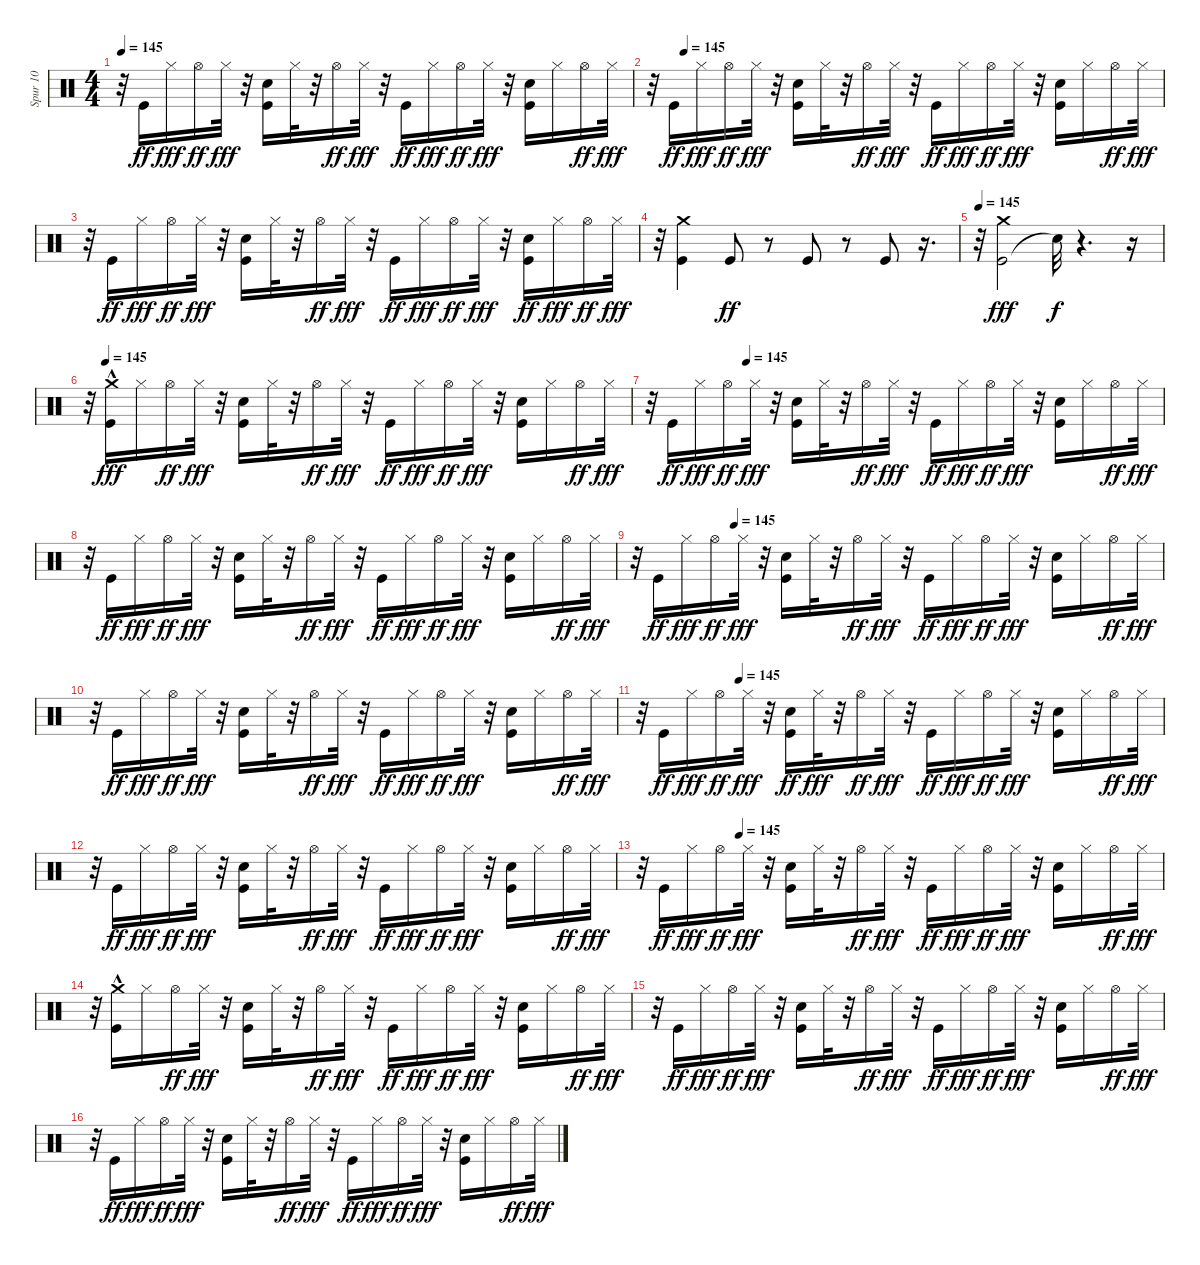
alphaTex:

\track ("Spur 10" "Spur 10") {instrument percussion}
\staff {score}
\articulation defaults
\ts (4 4)
\tempo 145
\clef neutral
\ks c
r.32{dy fff} "Kick (hit)".16{dy ff} "Hi-Hat (closed)".16{dy fff} "Hi-Hat (open)".16{dy ff} "Hi-Hat (closed)".32{dy fff} r.32 ("Kick (hit)" "Hand Clap (hit)").16 "Hi-Hat (closed)".32 r.32 "Hi-Hat (open)".16{dy ff} "Hi-Hat (closed)".32{dy fff} r.32 "Kick (hit)".16{dy ff} "Hi-Hat (closed)".16{dy fff} "Hi-Hat (open)".16{dy ff} "Hi-Hat (closed)".32{dy fff} r.32 ("Kick (hit)" "Hand Clap (hit)").16 "Hi-Hat (closed)".16 "Hi-Hat (open)".16{dy ff} "Hi-Hat (closed)".32{dy fff} |
\tempo (145 0.0625)
r.32 "Kick (hit)".16{dy ff} "Hi-Hat (closed)".16{dy fff} "Hi-Hat (open)".16{dy ff} "Hi-Hat (closed)".32{dy fff} r.32 ("Kick (hit)" "Hand Clap (hit)").16 "Hi-Hat (closed)".32 r.32 "Hi-Hat (open)".16{dy ff} "Hi-Hat (closed)".32{dy fff} r.32 "Kick (hit)".16{dy ff} "Hi-Hat (closed)".16{dy fff} "Hi-Hat (open)".16{dy ff} "Hi-Hat (closed)".32{dy fff} r.32 ("Kick (hit)" "Hand Clap (hit)").16 "Hi-Hat (closed)".16 "Hi-Hat (open)".16{dy ff} "Hi-Hat (closed)".32{dy fff} |
r.32 "Kick (hit)".16{dy ff} "Hi-Hat (closed)".16{dy fff} "Hi-Hat (open)".16{dy ff} "Hi-Hat (closed)".32{dy fff} r.32 ("Kick (hit)" "Hand Clap (hit)").16 "Hi-Hat (closed)".32 r.32 "Hi-Hat (open)".16{dy ff} "Hi-Hat (closed)".32{dy fff} r.32 "Kick (hit)".16{dy ff} "Hi-Hat (closed)".16{dy fff} "Hi-Hat (open)".16{dy ff} "Hi-Hat (closed)".32{dy fff} r.32 ("Hand Clap (hit)" "Kick (hit)").16{dy ff} "Hi-Hat (closed)".16{dy fff} "Hi-Hat (open)".16{dy ff} "Hi-Hat (closed)".32{dy fff} |
r.32 ("Kick (hit)" "Crash medium (hit)").4 "Kick (hit)".8{dy ff} r.8 "Kick (hit)".8 r.8 "Kick (hit)".8 r.16{d} |
\tempo 145
r.32 ("Kick (hit)" "Crash medium (hit)").2{dy fff} "Snare (hit)"{t}.32{dy f} r.4{d} r.16 |
\tempo (145 0.03125)
r.32 ("Kick (hit)" "Crash medium (hit)"{hac}).16{dy fff} "Hi-Hat (closed)".16 "Hi-Hat (open)".16{dy ff} "Hi-Hat (closed)".32{dy fff} r.32 ("Kick (hit)" "Hand Clap (hit)").16 "Hi-Hat (closed)".32 r.32 "Hi-Hat (open)".16{dy ff} "Hi-Hat (closed)".32{dy fff} r.32 "Kick (hit)".16{dy ff} "Hi-Hat (closed)".16{dy fff} "Hi-Hat (open)".16{dy ff} "Hi-Hat (closed)".32{dy fff} r.32 ("Kick (hit)" "Hand Clap (hit)").16 "Hi-Hat (closed)".16 "Hi-Hat (open)".16{dy ff} "Hi-Hat (closed)".32{dy fff} |
\tempo (145 0.1875)
r.32 "Kick (hit)".16{dy ff} "Hi-Hat (closed)".16{dy fff} "Hi-Hat (open)".16{dy ff} "Hi-Hat (closed)".32{dy fff} r.32 ("Kick (hit)" "Hand Clap (hit)").16 "Hi-Hat (closed)".32 r.32 "Hi-Hat (open)".16{dy ff} "Hi-Hat (closed)".32{dy fff} r.32 "Kick (hit)".16{dy ff} "Hi-Hat (closed)".16{dy fff} "Hi-Hat (open)".16{dy ff} "Hi-Hat (closed)".32{dy fff} r.32 ("Kick (hit)" "Hand Clap (hit)").16 "Hi-Hat (closed)".16 "Hi-Hat (open)".16{dy ff} "Hi-Hat (closed)".32{dy fff} |
r.32 "Kick (hit)".16{dy ff} "Hi-Hat (closed)".16{dy fff} "Hi-Hat (open)".16{dy ff} "Hi-Hat (closed)".32{dy fff} r.32 ("Kick (hit)" "Hand Clap (hit)").16 "Hi-Hat (closed)".32 r.32 "Hi-Hat (open)".16{dy ff} "Hi-Hat (closed)".32{dy fff} r.32 "Kick (hit)".16{dy ff} "Hi-Hat (closed)".16{dy fff} "Hi-Hat (open)".16{dy ff} "Hi-Hat (closed)".32{dy fff} r.32 ("Kick (hit)" "Hand Clap (hit)").16 "Hi-Hat (closed)".16 "Hi-Hat (open)".16{dy ff} "Hi-Hat (closed)".32{dy fff} |
\tempo (145 0.1875)
r.32 "Kick (hit)".16{dy ff} "Hi-Hat (closed)".16{dy fff} "Hi-Hat (open)".16{dy ff} "Hi-Hat (closed)".32{dy fff} r.32 ("Kick (hit)" "Hand Clap (hit)").16 "Hi-Hat (closed)".32 r.32 "Hi-Hat (open)".16{dy ff} "Hi-Hat (closed)".32{dy fff} r.32 "Kick (hit)".16{dy ff} "Hi-Hat (closed)".16{dy fff} "Hi-Hat (open)".16{dy ff} "Hi-Hat (closed)".32{dy fff} r.32 ("Kick (hit)" "Hand Clap (hit)").16 "Hi-Hat (closed)".16 "Hi-Hat (open)".16{dy ff} "Hi-Hat (closed)".32{dy fff} |
r.32 "Kick (hit)".16{dy ff} "Hi-Hat (closed)".16{dy fff} "Hi-Hat (open)".16{dy ff} "Hi-Hat (closed)".32{dy fff} r.32 ("Kick (hit)" "Hand Clap (hit)").16 "Hi-Hat (closed)".32 r.32 "Hi-Hat (open)".16{dy ff} "Hi-Hat (closed)".32{dy fff} r.32 "Kick (hit)".16{dy ff} "Hi-Hat (closed)".16{dy fff} "Hi-Hat (open)".16{dy ff} "Hi-Hat (closed)".32{dy fff} r.32 ("Kick (hit)" "Hand Clap (hit)").16 "Hi-Hat (closed)".16 "Hi-Hat (open)".16{dy ff} "Hi-Hat (closed)".32{dy fff} |
\tempo (145 0.1875)
r.32 "Kick (hit)".16{dy ff} "Hi-Hat (closed)".16{dy fff} "Hi-Hat (open)".16{dy ff} "Hi-Hat (closed)".32{dy fff} r.32 ("Hand Clap (hit)" "Kick (hit)").16{dy ff} "Hi-Hat (closed)".32{dy fff} r.32 "Hi-Hat (open)".16{dy ff} "Hi-Hat (closed)".32{dy fff} r.32 "Kick (hit)".16{dy ff} "Hi-Hat (closed)".16{dy fff} "Hi-Hat (open)".16{dy ff} "Hi-Hat (closed)".32{dy fff} r.32 ("Kick (hit)" "Hand Clap (hit)").16 "Hi-Hat (closed)".16 "Hi-Hat (open)".16{dy ff} "Hi-Hat (closed)".32{dy fff} |
r.32 "Kick (hit)".16{dy ff} "Hi-Hat (closed)".16{dy fff} "Hi-Hat (open)".16{dy ff} "Hi-Hat (closed)".32{dy fff} r.32 ("Kick (hit)" "Hand Clap (hit)").16 "Hi-Hat (closed)".32 r.32 "Hi-Hat (open)".16{dy ff} "Hi-Hat (closed)".32{dy fff} r.32 "Kick (hit)".16{dy ff} "Hi-Hat (closed)".16{dy fff} "Hi-Hat (open)".16{dy ff} "Hi-Hat (closed)".32{dy fff} r.32 ("Kick (hit)" "Hand Clap (hit)").16 "Hi-Hat (closed)".16 "Hi-Hat (open)".16{dy ff} "Hi-Hat (closed)".32{dy fff} |
\tempo (145 0.1875)
r.32 "Kick (hit)".16{dy ff} "Hi-Hat (closed)".16{dy fff} "Hi-Hat (open)".16{dy ff} "Hi-Hat (closed)".32{dy fff} r.32 ("Kick (hit)" "Hand Clap (hit)").16 "Hi-Hat (closed)".32 r.32 "Hi-Hat (open)".16{dy ff} "Hi-Hat (closed)".32{dy fff} r.32 "Kick (hit)".16{dy ff} "Hi-Hat (closed)".16{dy fff} "Hi-Hat (open)".16{dy ff} "Hi-Hat (closed)".32{dy fff} r.32 ("Kick (hit)" "Hand Clap (hit)").16 "Hi-Hat (closed)".16 "Hi-Hat (open)".16{dy ff} "Hi-Hat (closed)".32{dy fff} |
r.32 ("Kick (hit)" "Crash medium (hit)"{hac}).16 "Hi-Hat (closed)".16 "Hi-Hat (open)".16{dy ff} "Hi-Hat (closed)".32{dy fff} r.32 ("Kick (hit)" "Hand Clap (hit)").16 "Hi-Hat (closed)".32 r.32 "Hi-Hat (open)".16{dy ff} "Hi-Hat (closed)".32{dy fff} r.32 "Kick (hit)".16{dy ff} "Hi-Hat (closed)".16{dy fff} "Hi-Hat (open)".16{dy ff} "Hi-Hat (closed)".32{dy fff} r.32 ("Kick (hit)" "Hand Clap (hit)").16 "Hi-Hat (closed)".16 "Hi-Hat (open)".16{dy ff} "Hi-Hat (closed)".32{dy fff} |
r.32 "Kick (hit)".16{dy ff} "Hi-Hat (closed)".16{dy fff} "Hi-Hat (open)".16{dy ff} "Hi-Hat (closed)".32{dy fff} r.32 ("Kick (hit)" "Hand Clap (hit)").16 "Hi-Hat (closed)".32 r.32 "Hi-Hat (open)".16{dy ff} "Hi-Hat (closed)".32{dy fff} r.32 "Kick (hit)".16{dy ff} "Hi-Hat (closed)".16{dy fff} "Hi-Hat (open)".16{dy ff} "Hi-Hat (closed)".32{dy fff} r.32 ("Kick (hit)" "Hand Clap (hit)").16 "Hi-Hat (closed)".16 "Hi-Hat (open)".16{dy ff} "Hi-Hat (closed)".32{dy fff} |
r.32 "Kick (hit)".16{dy ff} "Hi-Hat (closed)".16{dy fff} "Hi-Hat (open)".16{dy ff} "Hi-Hat (closed)".32{dy fff} r.32 ("Kick (hit)" "Hand Clap (hit)").16 "Hi-Hat (closed)".32 r.32 "Hi-Hat (open)".16{dy ff} "Hi-Hat (closed)".32{dy fff} r.32 "Kick (hit)".16{dy ff} "Hi-Hat (closed)".16{dy fff} "Hi-Hat (open)".16{dy ff} "Hi-Hat (closed)".32{dy fff} r.32 ("Kick (hit)" "Hand Clap (hit)").16 "Hi-Hat (closed)".16 "Hi-Hat (open)".16{dy ff} "Hi-Hat (closed)".32{dy fff}
